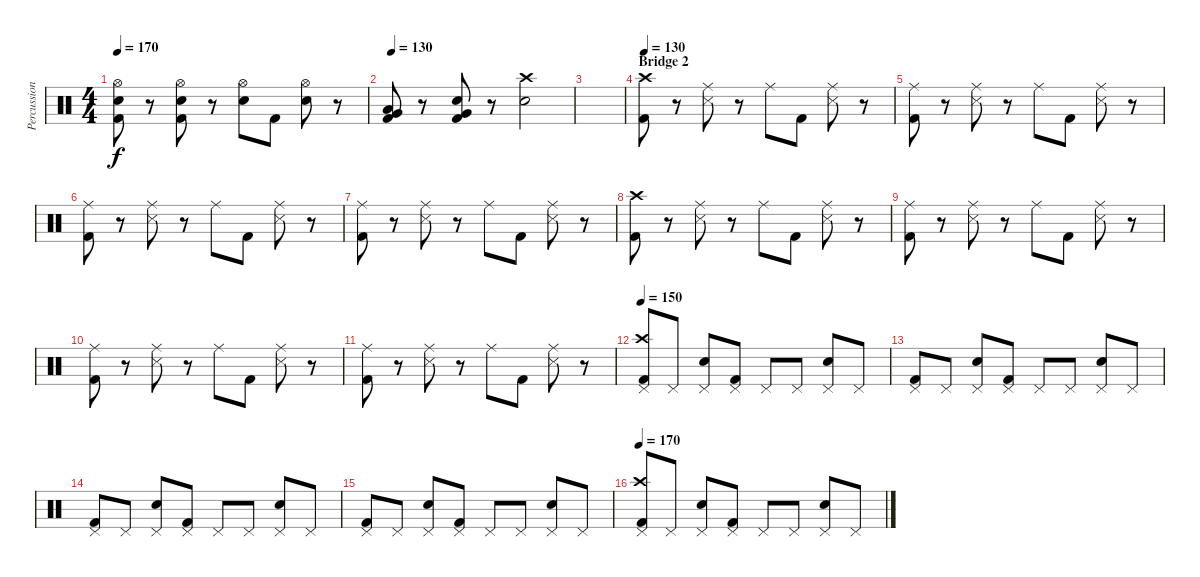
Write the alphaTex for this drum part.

\track ("Percussion" "Percussion") {instrument percussion}
\staff {score}
\articulation defaults
\ts (4 4)
\tempo 170
\clef neutral
\ks c
("Hi-Hat (open)" "Snare (hit) 2" "Kick (hit) 2").8{dy f} r.8 ("Hi-Hat (open)" "Snare (hit) 2" "Kick (hit) 2").8 r.8 ("Hi-Hat (open)" "Snare (hit) 2").8 "Kick (hit) 2".8 ("Hi-Hat (open)" "Snare (hit) 2").8 r.8 |
\tempo 130
("Very Low Tom (hit)" "Low Floor Tom (hit)" "Kick (hit) 2").8 r.8 ("Very Low Tom (hit)" "Snare (hit)" "Kick (hit) 2").8 r.8 ("Crash high (hit)" "Snare (hit) 2").2 |
|
\section ("" "Bridge 2")
\tempo 130
("Crash high (hit)" "Kick (hit) 2").8 r.8 ("Ride (middle)" "Metronome (hit)").8 r.8 "Ride (middle)".8 "Kick (hit) 2".8 ("Ride (middle)" "Metronome (hit)").8 r.8 |
("Ride (middle)" "Kick (hit) 2").8 r.8 ("Ride (middle)" "Metronome (hit)").8 r.8 "Ride (middle)".8 "Kick (hit) 2".8 ("Ride (middle)" "Metronome (hit)").8 r.8 |
("Ride (middle)" "Kick (hit) 2").8 r.8 ("Ride (middle)" "Metronome (hit)").8 r.8 "Ride (middle)".8 "Kick (hit) 2".8 ("Ride (middle)" "Metronome (hit)").8 r.8 |
("Ride (middle)" "Kick (hit) 2").8 r.8 ("Ride (middle)" "Metronome (hit)").8 r.8 "Ride (middle)".8 "Kick (hit) 2".8 ("Ride (middle)" "Metronome (hit)").8 r.8 |
("Crash high (hit)" "Kick (hit) 2").8 r.8 ("Ride (middle)" "Metronome (hit)").8 r.8 "Ride (middle)".8 "Kick (hit) 2".8 ("Ride (middle)" "Metronome (hit)").8 r.8 |
("Ride (middle)" "Kick (hit) 2").8 r.8 ("Ride (middle)" "Metronome (hit)").8 r.8 "Ride (middle)".8 "Kick (hit) 2".8 ("Ride (middle)" "Metronome (hit)").8 r.8 |
("Ride (middle)" "Kick (hit) 2").8 r.8 ("Ride (middle)" "Metronome (hit)").8 r.8 "Ride (middle)".8 "Kick (hit) 2".8 ("Ride (middle)" "Metronome (hit)").8 r.8 |
("Ride (middle)" "Kick (hit) 2").8 r.8 ("Ride (middle)" "Metronome (hit)").8 r.8 "Ride (middle)".8 "Kick (hit) 2".8 ("Ride (middle)" "Metronome (hit)").8 r.8 |
\tempo 150
("Crash high (hit)" "Pedal Hi-Hat (hit)" "Kick (hit) 2").8 "Pedal Hi-Hat (hit)".8 ("Pedal Hi-Hat (hit)" "Snare (hit) 2").8 ("Pedal Hi-Hat (hit)" "Kick (hit) 2").8 "Pedal Hi-Hat (hit)".8 "Pedal Hi-Hat (hit)".8 ("Pedal Hi-Hat (hit)" "Snare (hit) 2").8 "Pedal Hi-Hat (hit)".8 |
("Pedal Hi-Hat (hit)" "Kick (hit) 2").8 "Pedal Hi-Hat (hit)".8 ("Pedal Hi-Hat (hit)" "Snare (hit) 2").8 ("Pedal Hi-Hat (hit)" "Kick (hit) 2").8 "Pedal Hi-Hat (hit)".8 "Pedal Hi-Hat (hit)".8 ("Pedal Hi-Hat (hit)" "Snare (hit) 2").8 "Pedal Hi-Hat (hit)".8 |
("Pedal Hi-Hat (hit)" "Kick (hit) 2").8 "Pedal Hi-Hat (hit)".8 ("Pedal Hi-Hat (hit)" "Snare (hit) 2").8 ("Pedal Hi-Hat (hit)" "Kick (hit) 2").8 "Pedal Hi-Hat (hit)".8 "Pedal Hi-Hat (hit)".8 ("Pedal Hi-Hat (hit)" "Snare (hit) 2").8 "Pedal Hi-Hat (hit)".8 |
("Pedal Hi-Hat (hit)" "Kick (hit) 2").8 "Pedal Hi-Hat (hit)".8 ("Pedal Hi-Hat (hit)" "Snare (hit) 2").8 ("Pedal Hi-Hat (hit)" "Kick (hit) 2").8 "Pedal Hi-Hat (hit)".8 "Pedal Hi-Hat (hit)".8 ("Pedal Hi-Hat (hit)" "Snare (hit) 2").8 "Pedal Hi-Hat (hit)".8 |
\tempo 170
("Crash high (hit)" "Pedal Hi-Hat (hit)" "Kick (hit) 2").8 "Pedal Hi-Hat (hit)".8 ("Pedal Hi-Hat (hit)" "Snare (hit) 2").8 ("Pedal Hi-Hat (hit)" "Kick (hit) 2").8 "Pedal Hi-Hat (hit)".8 "Pedal Hi-Hat (hit)".8 ("Pedal Hi-Hat (hit)" "Snare (hit) 2").8 "Pedal Hi-Hat (hit)".8
